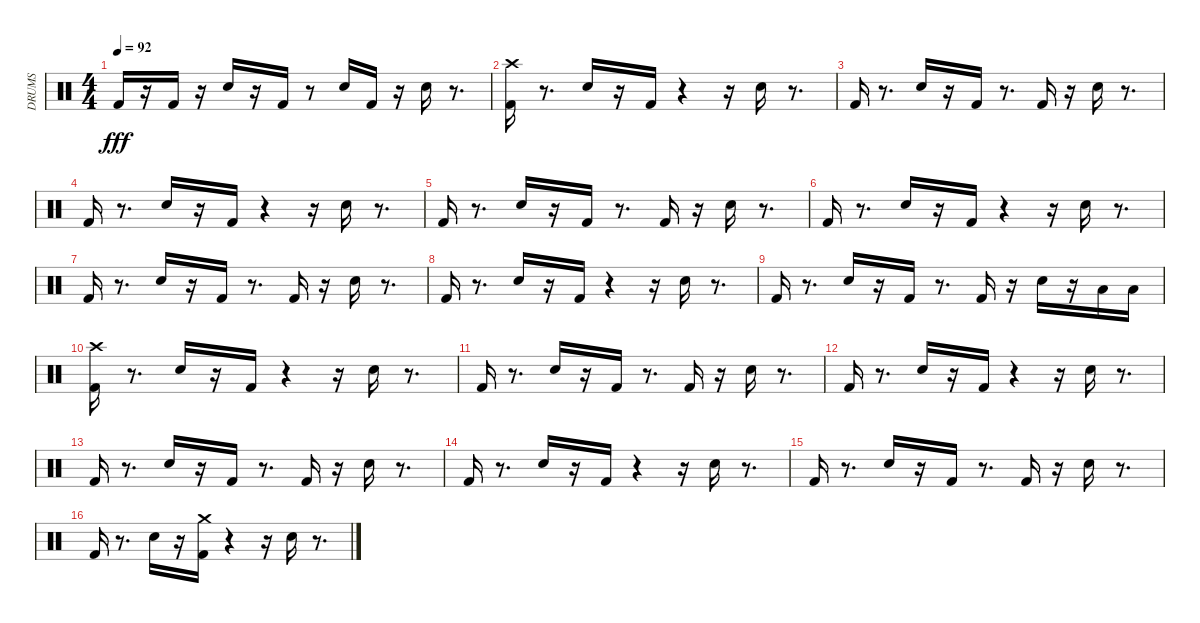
\track ("DRUMS" "DRUMS") {instrument percussion}
\staff {score}
\articulation defaults
\ts (4 4)
\tempo 92
\clef neutral
\ks c "Kick (hit) 2".16{dy fff}
r.16 "Kick (hit) 2".16 r.16 "Electric Snare (hit)".16 r.16 "Kick (hit) 2".16 r.8 "Snare (hit) 2".16 "Kick (hit) 2".16 r.16 "Electric Snare (hit)".16 r.8{d} |
("Kick (hit) 2" "Crash high (hit)").16 r.8{d} "Electric Snare (hit)".16 r.16 "Kick (hit) 2".16 r.4 r.16 "Electric Snare (hit)".16 r.8{d} |
"Kick (hit) 2".16 r.8{d} "Electric Snare (hit)".16 r.16 "Kick (hit) 2".16 r.8{d} "Kick (hit) 2".16 r.16 "Electric Snare (hit)".16 r.8{d} |
"Kick (hit) 2".16 r.8{d} "Electric Snare (hit)".16 r.16 "Kick (hit) 2".16 r.4 r.16 "Electric Snare (hit)".16 r.8{d} |
"Kick (hit) 2".16 r.8{d} "Electric Snare (hit)".16 r.16 "Kick (hit) 2".16 r.8{d} "Kick (hit) 2".16 r.16 "Electric Snare (hit)".16 r.8{d} |
"Kick (hit) 2".16 r.8{d} "Electric Snare (hit)".16 r.16 "Kick (hit) 2".16 r.4 r.16 "Electric Snare (hit)".16 r.8{d} |
"Kick (hit) 2".16 r.8{d} "Electric Snare (hit)".16 r.16 "Kick (hit) 2".16 r.8{d} "Kick (hit) 2".16 r.16 "Electric Snare (hit)".16 r.8{d} |
"Kick (hit) 2".16 r.8{d} "Electric Snare (hit)".16 r.16 "Kick (hit) 2".16 r.4 r.16 "Electric Snare (hit)".16 r.8{d} |
"Kick (hit) 2".16 r.8{d} "Electric Snare (hit)".16 r.16 "Kick (hit) 2".16 r.8{d} "Kick (hit) 2".16 r.16 "Electric Snare (hit)".16 r.16 "Low Tom (hit)".16 "Low Tom (hit)".16 |
("Kick (hit) 2" "Crash high (hit)").16 r.8{d} "Electric Snare (hit)".16 r.16 "Kick (hit) 2".16 r.4 r.16 "Electric Snare (hit)".16 r.8{d} |
"Kick (hit) 2".16 r.8{d} "Electric Snare (hit)".16 r.16 "Kick (hit) 2".16 r.8{d} "Kick (hit) 2".16 r.16 "Electric Snare (hit)".16 r.8{d} |
"Kick (hit) 2".16 r.8{d} "Electric Snare (hit)".16 r.16 "Kick (hit) 2".16 r.4 r.16 "Electric Snare (hit)".16 r.8{d} |
"Kick (hit) 2".16 r.8{d} "Electric Snare (hit)".16 r.16 "Kick (hit) 2".16 r.8{d} "Kick (hit) 2".16 r.16 "Electric Snare (hit)".16 r.8{d} |
"Kick (hit) 2".16 r.8{d} "Electric Snare (hit)".16 r.16 "Kick (hit) 2".16 r.4 r.16 "Electric Snare (hit)".16 r.8{d} |
"Kick (hit) 2".16 r.8{d} "Electric Snare (hit)".16 r.16 "Kick (hit) 2".16 r.8{d} "Kick (hit) 2".16 r.16 "Electric Snare (hit)".16 r.8{d} |
"Kick (hit) 2".16 r.8{d} "Electric Snare (hit)".16 r.16 ("Kick (hit) 2" "Crash medium (hit)").16 r.4 r.16 "Electric Snare (hit)".16 r.8{d}
